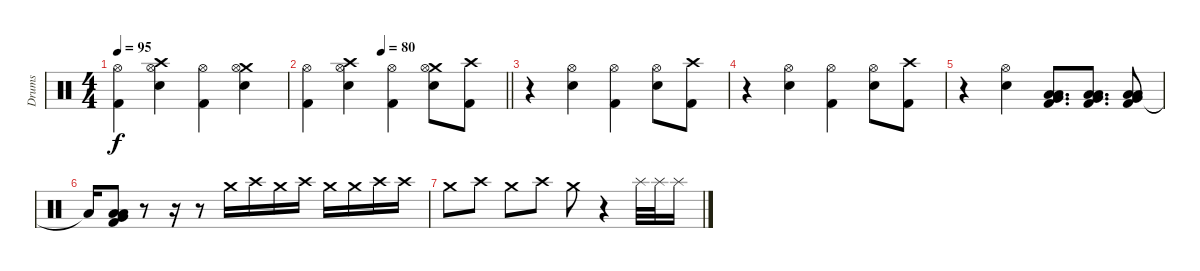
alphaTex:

\track ("Drums" "Drums") {instrument percussion}
\staff {score}
\articulation defaults
\ts (4 4)
\tempo 95
\clef neutral
\ks c
("Hi-Hat (open)" "Kick (hit) 2").4{dy f} ("Crash high (hit)" "Hi-Hat (open)" "Electric Snare (hit)").4 ("Hi-Hat (open)" "Kick (hit) 2").4 ("Crash medium (hit)" "Hi-Hat (open)" "Electric Snare (hit)").4 |
\tempo (80 0.375)
\barLineRight lightlight
("Hi-Hat (open)" "Kick (hit) 2").4 ("Crash high (hit)" "Hi-Hat (open)" "Electric Snare (hit)").4 ("Hi-Hat (open)" "Kick (hit) 2").4 ("Crash medium (hit)" "Hi-Hat (open)" "Electric Snare (hit)").8 ("Crash high (hit)" "Kick (hit) 2").8 |
r.4 ("Hi-Hat (open)" "Electric Snare (hit)").4 ("Hi-Hat (open)" "Kick (hit) 2").4 ("Hi-Hat (open)" "Electric Snare (hit)").8 ("Crash high (hit)" "Kick (hit) 2").8 |
r.4 ("Hi-Hat (open)" "Electric Snare (hit)").4 ("Hi-Hat (open)" "Kick (hit) 2").4 ("Hi-Hat (open)" "Electric Snare (hit)").8 ("Crash high (hit)" "Kick (hit) 2").8 |
r.4 ("Hi-Hat (open)" "Electric Snare (hit)").4 ("Very Low Tom (hit)" "Low Floor Tom (hit)" "Low Tom (hit)" "Kick (hit) 2").8{d} ("Very Low Tom (hit)" "Low Floor Tom (hit)" "Low Tom (hit)" "Kick (hit) 2").8{d} ("Very Low Tom (hit)" "Low Floor Tom (hit)" "Low Tom (hit)" "Kick (hit) 2").8 |
"Low Tom (hit)"{t}.16 ("Very Low Tom (hit)" "Low Floor Tom (hit)" "Low Tom (hit)" "Kick (hit) 2").8 r.8 r.16 r.8 "Crash medium (hit)".16 "Crash high (hit)".16 "Crash medium (hit)".16 "Crash high (hit)".16 "Crash medium (hit)".16 "Crash medium (hit)".16 "Crash high (hit)".16 "Crash high (hit)".16 |
"Crash medium (hit)".8 "Crash high (hit)".8 "Crash medium (hit)".8 "Crash high (hit)".8 "Crash medium (hit)".8 r.4 "Splash (hit)".32 "Splash (hit)".32 "Splash (hit)".16
